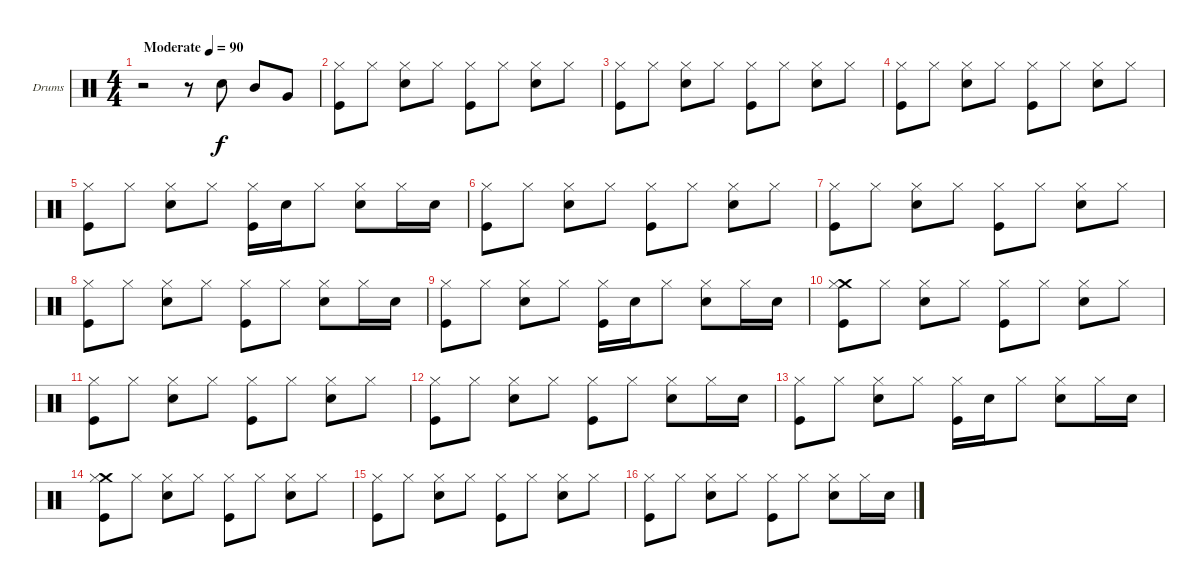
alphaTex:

\bracketExtendMode groupsimilarinstruments
\firstSystemTrackNameOrientation horizontal
\otherSystemsTrackNameOrientation horizontal
\track ("Drumkit" "Drums") {instrument percussion}
\staff {score}
\articulation defaults
\ts (4 4)
\beaming (8 2 2 2 2)
\tempo (90 "Moderate")
\clef neutral
\ks c
r.2{dy f} r.8 "Snare (hit) 2".8 "Mid Tom (hit)".8 "Very Low Tom (hit)".8 |
("Hi-Hat (closed)" "Kick (hit)").8 "Hi-Hat (closed)".8 ("Hi-Hat (closed)" "Snare (hit) 2").8 "Hi-Hat (closed)".8 ("Hi-Hat (closed)" "Kick (hit)").8 "Hi-Hat (closed)".8 ("Hi-Hat (closed)" "Snare (hit) 2").8 "Hi-Hat (closed)".8 |
("Hi-Hat (closed)" "Kick (hit)").8 "Hi-Hat (closed)".8 ("Hi-Hat (closed)" "Snare (hit) 2").8 "Hi-Hat (closed)".8 ("Hi-Hat (closed)" "Kick (hit)").8 "Hi-Hat (closed)".8 ("Hi-Hat (closed)" "Snare (hit) 2").8 "Hi-Hat (closed)".8 |
("Hi-Hat (closed)" "Kick (hit)").8 "Hi-Hat (closed)".8 ("Hi-Hat (closed)" "Snare (hit) 2").8 "Hi-Hat (closed)".8 ("Hi-Hat (closed)" "Kick (hit)").8 "Hi-Hat (closed)".8 ("Hi-Hat (closed)" "Snare (hit) 2").8 "Hi-Hat (closed)".8 |
("Hi-Hat (closed)" "Kick (hit)").8 "Hi-Hat (closed)".8 ("Hi-Hat (closed)" "Snare (hit) 2").8 "Hi-Hat (closed)".8 ("Hi-Hat (closed)" "Kick (hit)").16 "Snare (hit) 2".16 "Hi-Hat (closed)".8 ("Hi-Hat (closed)" "Snare (hit) 2").8 "Hi-Hat (closed)".16 "Snare (hit) 2".16 |
("Hi-Hat (closed)" "Kick (hit)").8 "Hi-Hat (closed)".8 ("Hi-Hat (closed)" "Snare (hit) 2").8 "Hi-Hat (closed)".8 ("Hi-Hat (closed)" "Kick (hit)").8 "Hi-Hat (closed)".8 ("Hi-Hat (closed)" "Snare (hit) 2").8 "Hi-Hat (closed)".8 |
("Hi-Hat (closed)" "Kick (hit)").8 "Hi-Hat (closed)".8 ("Hi-Hat (closed)" "Snare (hit) 2").8 "Hi-Hat (closed)".8 ("Hi-Hat (closed)" "Kick (hit)").8 "Hi-Hat (closed)".8 ("Hi-Hat (closed)" "Snare (hit) 2").8 "Hi-Hat (closed)".8 |
("Hi-Hat (closed)" "Kick (hit)").8 "Hi-Hat (closed)".8 ("Hi-Hat (closed)" "Snare (hit) 2").8 "Hi-Hat (closed)".8 ("Hi-Hat (closed)" "Kick (hit)").8 "Hi-Hat (closed)".8 ("Hi-Hat (closed)" "Snare (hit) 2").8 "Hi-Hat (closed)".16 "Snare (hit) 2".16 |
("Hi-Hat (closed)" "Kick (hit)").8 "Hi-Hat (closed)".8 ("Hi-Hat (closed)" "Snare (hit) 2").8 "Hi-Hat (closed)".8 ("Hi-Hat (closed)" "Kick (hit)").16 "Snare (hit) 2".16 "Hi-Hat (closed)".8 ("Hi-Hat (closed)" "Snare (hit) 2").8 "Hi-Hat (closed)".16 "Snare (hit) 2".16 |
("Crash medium (hit)" "Hi-Hat (closed)" "Kick (hit)").8 "Hi-Hat (closed)".8 ("Hi-Hat (closed)" "Snare (hit) 2").8 "Hi-Hat (closed)".8 ("Hi-Hat (closed)" "Kick (hit)").8 "Hi-Hat (closed)".8 ("Hi-Hat (closed)" "Snare (hit) 2").8 "Hi-Hat (closed)".8 |
("Hi-Hat (closed)" "Kick (hit)").8 "Hi-Hat (closed)".8 ("Hi-Hat (closed)" "Snare (hit) 2").8 "Hi-Hat (closed)".8 ("Hi-Hat (closed)" "Kick (hit)").8 "Hi-Hat (closed)".8 ("Hi-Hat (closed)" "Snare (hit) 2").8 "Hi-Hat (closed)".8 |
("Hi-Hat (closed)" "Kick (hit)").8 "Hi-Hat (closed)".8 ("Hi-Hat (closed)" "Snare (hit) 2").8 "Hi-Hat (closed)".8 ("Hi-Hat (closed)" "Kick (hit)").8 "Hi-Hat (closed)".8 ("Hi-Hat (closed)" "Snare (hit) 2").8 "Hi-Hat (closed)".16 "Snare (hit) 2".16 |
("Hi-Hat (closed)" "Kick (hit)").8 "Hi-Hat (closed)".8 ("Hi-Hat (closed)" "Snare (hit) 2").8 "Hi-Hat (closed)".8 ("Hi-Hat (closed)" "Kick (hit)").16 "Snare (hit) 2".16 "Hi-Hat (closed)".8 ("Hi-Hat (closed)" "Snare (hit) 2").8 "Hi-Hat (closed)".16 "Snare (hit) 2".16 |
("Crash medium (hit)" "Hi-Hat (closed)" "Kick (hit)").8 "Hi-Hat (closed)".8 ("Hi-Hat (closed)" "Snare (hit) 2").8 "Hi-Hat (closed)".8 ("Hi-Hat (closed)" "Kick (hit)").8 "Hi-Hat (closed)".8 ("Hi-Hat (closed)" "Snare (hit) 2").8 "Hi-Hat (closed)".8 |
("Hi-Hat (closed)" "Kick (hit)").8 "Hi-Hat (closed)".8 ("Hi-Hat (closed)" "Snare (hit) 2").8 "Hi-Hat (closed)".8 ("Hi-Hat (closed)" "Kick (hit)").8 "Hi-Hat (closed)".8 ("Hi-Hat (closed)" "Snare (hit) 2").8 "Hi-Hat (closed)".8 |
("Hi-Hat (closed)" "Kick (hit)").8 "Hi-Hat (closed)".8 ("Hi-Hat (closed)" "Snare (hit) 2").8 "Hi-Hat (closed)".8 ("Hi-Hat (closed)" "Kick (hit)").8 "Hi-Hat (closed)".8 ("Hi-Hat (closed)" "Snare (hit) 2").8 "Hi-Hat (closed)".16 "Snare (hit) 2".16
